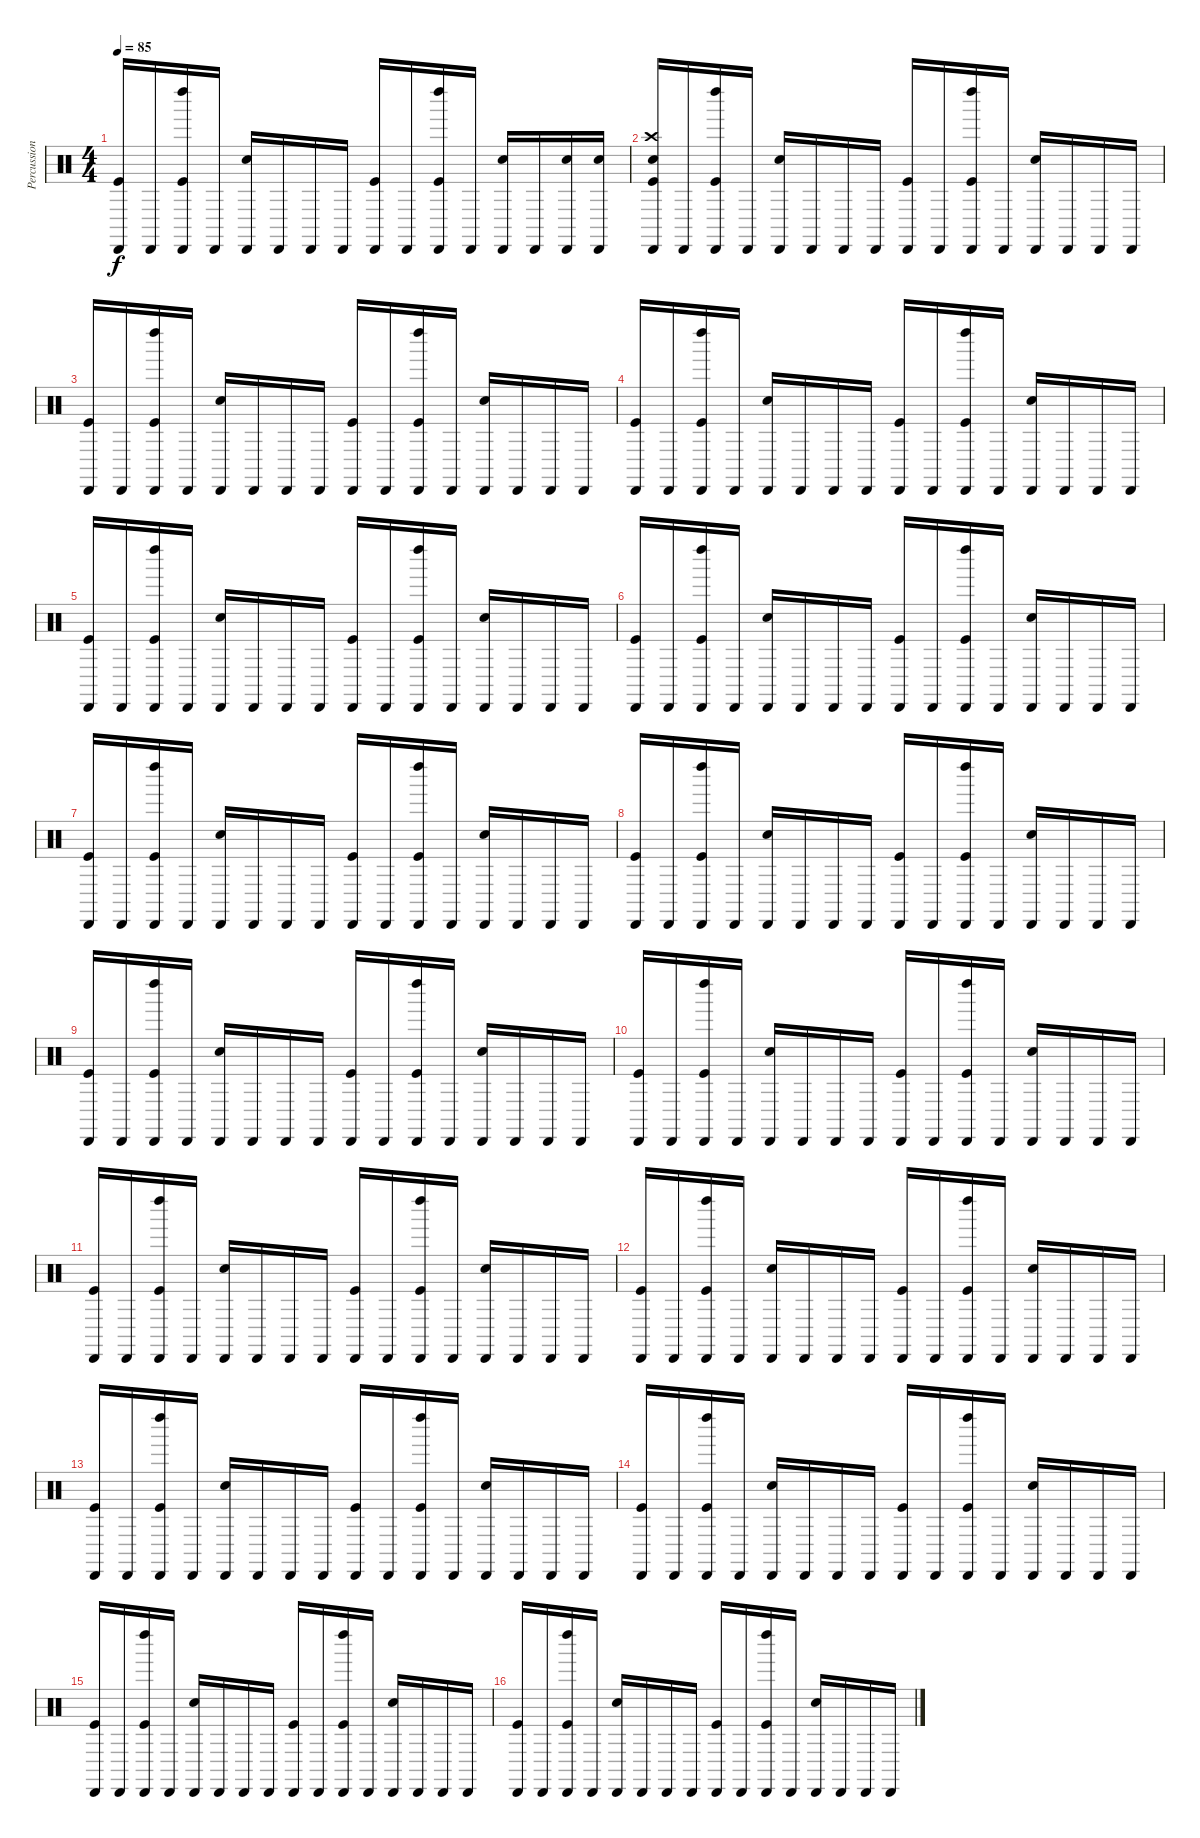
\track ("Percussions" "Percussion") {instrument percussion}
\staff {score}
\articulation defaults
\ts (4 4)
\tempo 85
\clef neutral
\ks c
("Cabasa (hit)" "Kick (hit)").16{dy f} "Cabasa (hit)".16 ("Kick (hit)" "Cabasa (hit)" "Left Maraca (hit)").16 "Cabasa (hit)".16 ("Snare (hit) 2" "Cabasa (hit)").16 "Cabasa (hit)".16 "Cabasa (hit)".16 "Cabasa (hit)".16 ("Kick (hit)" "Cabasa (hit)").16 "Cabasa (hit)".16 ("Kick (hit)" "Cabasa (hit)" "Left Maraca (hit)").16 "Cabasa (hit)".16 ("Snare (hit) 2" "Cabasa (hit)").16 "Cabasa (hit)".16 ("Cabasa (hit)" "Snare (hit) 2").16 ("Cabasa (hit)" "Snare (hit) 2").16 |
("Cabasa (hit)" "Kick (hit)" "Snare (hit) 2" "Crash high (hit)").16 "Cabasa (hit)".16 ("Kick (hit)" "Cabasa (hit)" "Left Maraca (hit)").16 "Cabasa (hit)".16 ("Snare (hit) 2" "Cabasa (hit)").16 "Cabasa (hit)".16 "Cabasa (hit)".16 "Cabasa (hit)".16 ("Kick (hit)" "Cabasa (hit)").16 "Cabasa (hit)".16 ("Kick (hit)" "Cabasa (hit)" "Left Maraca (hit)").16 "Cabasa (hit)".16 ("Snare (hit) 2" "Cabasa (hit)").16 "Cabasa (hit)".16 "Cabasa (hit)".16 "Cabasa (hit)".16 |
("Cabasa (hit)" "Kick (hit)").16 "Cabasa (hit)".16 ("Kick (hit)" "Cabasa (hit)" "Left Maraca (hit)").16 "Cabasa (hit)".16 ("Snare (hit) 2" "Cabasa (hit)").16 "Cabasa (hit)".16 "Cabasa (hit)".16 "Cabasa (hit)".16 ("Kick (hit)" "Cabasa (hit)").16 "Cabasa (hit)".16 ("Kick (hit)" "Cabasa (hit)" "Left Maraca (hit)").16 "Cabasa (hit)".16 ("Snare (hit) 2" "Cabasa (hit)").16 "Cabasa (hit)".16 "Cabasa (hit)".16 "Cabasa (hit)".16 |
("Cabasa (hit)" "Kick (hit)").16 "Cabasa (hit)".16 ("Kick (hit)" "Cabasa (hit)" "Left Maraca (hit)").16 "Cabasa (hit)".16 ("Snare (hit) 2" "Cabasa (hit)").16 "Cabasa (hit)".16 "Cabasa (hit)".16 "Cabasa (hit)".16 ("Kick (hit)" "Cabasa (hit)").16 "Cabasa (hit)".16 ("Kick (hit)" "Cabasa (hit)" "Left Maraca (hit)").16 "Cabasa (hit)".16 ("Snare (hit) 2" "Cabasa (hit)").16 "Cabasa (hit)".16 "Cabasa (hit)".16 "Cabasa (hit)".16 |
("Cabasa (hit)" "Kick (hit)").16 "Cabasa (hit)".16 ("Kick (hit)" "Cabasa (hit)" "Left Maraca (hit)").16 "Cabasa (hit)".16 ("Snare (hit) 2" "Cabasa (hit)").16 "Cabasa (hit)".16 "Cabasa (hit)".16 "Cabasa (hit)".16 ("Kick (hit)" "Cabasa (hit)").16 "Cabasa (hit)".16 ("Kick (hit)" "Cabasa (hit)" "Left Maraca (hit)").16 "Cabasa (hit)".16 ("Snare (hit) 2" "Cabasa (hit)").16 "Cabasa (hit)".16 "Cabasa (hit)".16 "Cabasa (hit)".16 |
("Cabasa (hit)" "Kick (hit)").16 "Cabasa (hit)".16 ("Kick (hit)" "Cabasa (hit)" "Left Maraca (hit)").16 "Cabasa (hit)".16 ("Snare (hit) 2" "Cabasa (hit)").16 "Cabasa (hit)".16 "Cabasa (hit)".16 "Cabasa (hit)".16 ("Kick (hit)" "Cabasa (hit)").16 "Cabasa (hit)".16 ("Kick (hit)" "Cabasa (hit)" "Left Maraca (hit)").16 "Cabasa (hit)".16 ("Snare (hit) 2" "Cabasa (hit)").16 "Cabasa (hit)".16 "Cabasa (hit)".16 "Cabasa (hit)".16 |
("Cabasa (hit)" "Kick (hit)").16 "Cabasa (hit)".16 ("Kick (hit)" "Cabasa (hit)" "Left Maraca (hit)").16 "Cabasa (hit)".16 ("Snare (hit) 2" "Cabasa (hit)").16 "Cabasa (hit)".16 "Cabasa (hit)".16 "Cabasa (hit)".16 ("Kick (hit)" "Cabasa (hit)").16 "Cabasa (hit)".16 ("Kick (hit)" "Cabasa (hit)" "Left Maraca (hit)").16 "Cabasa (hit)".16 ("Snare (hit) 2" "Cabasa (hit)").16 "Cabasa (hit)".16 "Cabasa (hit)".16 "Cabasa (hit)".16 |
("Cabasa (hit)" "Kick (hit)").16 "Cabasa (hit)".16 ("Kick (hit)" "Cabasa (hit)" "Left Maraca (hit)").16 "Cabasa (hit)".16 ("Snare (hit) 2" "Cabasa (hit)").16 "Cabasa (hit)".16 "Cabasa (hit)".16 "Cabasa (hit)".16 ("Kick (hit)" "Cabasa (hit)").16 "Cabasa (hit)".16 ("Kick (hit)" "Cabasa (hit)" "Left Maraca (hit)").16 "Cabasa (hit)".16 ("Snare (hit) 2" "Cabasa (hit)").16 "Cabasa (hit)".16 "Cabasa (hit)".16 "Cabasa (hit)".16 |
("Cabasa (hit)" "Kick (hit)").16 "Cabasa (hit)".16 ("Kick (hit)" "Cabasa (hit)" "Left Maraca (hit)").16 "Cabasa (hit)".16 ("Snare (hit) 2" "Cabasa (hit)").16 "Cabasa (hit)".16 "Cabasa (hit)".16 "Cabasa (hit)".16 ("Kick (hit)" "Cabasa (hit)").16 "Cabasa (hit)".16 ("Kick (hit)" "Cabasa (hit)" "Left Maraca (hit)").16 "Cabasa (hit)".16 ("Snare (hit) 2" "Cabasa (hit)").16 "Cabasa (hit)".16 "Cabasa (hit)".16 "Cabasa (hit)".16 |
("Cabasa (hit)" "Kick (hit)").16 "Cabasa (hit)".16 ("Kick (hit)" "Cabasa (hit)" "Left Maraca (hit)").16 "Cabasa (hit)".16 ("Snare (hit) 2" "Cabasa (hit)").16 "Cabasa (hit)".16 "Cabasa (hit)".16 "Cabasa (hit)".16 ("Kick (hit)" "Cabasa (hit)").16 "Cabasa (hit)".16 ("Kick (hit)" "Cabasa (hit)" "Left Maraca (hit)").16 "Cabasa (hit)".16 ("Snare (hit) 2" "Cabasa (hit)").16 "Cabasa (hit)".16 "Cabasa (hit)".16 "Cabasa (hit)".16 |
("Cabasa (hit)" "Kick (hit)").16 "Cabasa (hit)".16 ("Kick (hit)" "Cabasa (hit)" "Left Maraca (hit)").16 "Cabasa (hit)".16 ("Snare (hit) 2" "Cabasa (hit)").16 "Cabasa (hit)".16 "Cabasa (hit)".16 "Cabasa (hit)".16 ("Kick (hit)" "Cabasa (hit)").16 "Cabasa (hit)".16 ("Kick (hit)" "Cabasa (hit)" "Left Maraca (hit)").16 "Cabasa (hit)".16 ("Snare (hit) 2" "Cabasa (hit)").16 "Cabasa (hit)".16 "Cabasa (hit)".16 "Cabasa (hit)".16 |
("Cabasa (hit)" "Kick (hit)").16 "Cabasa (hit)".16 ("Kick (hit)" "Cabasa (hit)" "Left Maraca (hit)").16 "Cabasa (hit)".16 ("Snare (hit) 2" "Cabasa (hit)").16 "Cabasa (hit)".16 "Cabasa (hit)".16 "Cabasa (hit)".16 ("Kick (hit)" "Cabasa (hit)").16 "Cabasa (hit)".16 ("Kick (hit)" "Cabasa (hit)" "Left Maraca (hit)").16 "Cabasa (hit)".16 ("Snare (hit) 2" "Cabasa (hit)").16 "Cabasa (hit)".16 "Cabasa (hit)".16 "Cabasa (hit)".16 |
("Cabasa (hit)" "Kick (hit)").16 "Cabasa (hit)".16 ("Kick (hit)" "Cabasa (hit)" "Left Maraca (hit)").16 "Cabasa (hit)".16 ("Snare (hit) 2" "Cabasa (hit)").16 "Cabasa (hit)".16 "Cabasa (hit)".16 "Cabasa (hit)".16 ("Kick (hit)" "Cabasa (hit)").16 "Cabasa (hit)".16 ("Kick (hit)" "Cabasa (hit)" "Left Maraca (hit)").16 "Cabasa (hit)".16 ("Snare (hit) 2" "Cabasa (hit)").16 "Cabasa (hit)".16 "Cabasa (hit)".16 "Cabasa (hit)".16 |
("Cabasa (hit)" "Kick (hit)").16 "Cabasa (hit)".16 ("Kick (hit)" "Cabasa (hit)" "Left Maraca (hit)").16 "Cabasa (hit)".16 ("Snare (hit) 2" "Cabasa (hit)").16 "Cabasa (hit)".16 "Cabasa (hit)".16 "Cabasa (hit)".16 ("Kick (hit)" "Cabasa (hit)").16 "Cabasa (hit)".16 ("Kick (hit)" "Cabasa (hit)" "Left Maraca (hit)").16 "Cabasa (hit)".16 ("Snare (hit) 2" "Cabasa (hit)").16 "Cabasa (hit)".16 "Cabasa (hit)".16 "Cabasa (hit)".16 |
("Cabasa (hit)" "Kick (hit)").16 "Cabasa (hit)".16 ("Kick (hit)" "Cabasa (hit)" "Left Maraca (hit)").16 "Cabasa (hit)".16 ("Snare (hit) 2" "Cabasa (hit)").16 "Cabasa (hit)".16 "Cabasa (hit)".16 "Cabasa (hit)".16 ("Kick (hit)" "Cabasa (hit)").16 "Cabasa (hit)".16 ("Kick (hit)" "Cabasa (hit)" "Left Maraca (hit)").16 "Cabasa (hit)".16 ("Snare (hit) 2" "Cabasa (hit)").16 "Cabasa (hit)".16 "Cabasa (hit)".16 "Cabasa (hit)".16 |
("Cabasa (hit)" "Kick (hit)").16 "Cabasa (hit)".16 ("Kick (hit)" "Cabasa (hit)" "Left Maraca (hit)").16 "Cabasa (hit)".16 ("Snare (hit) 2" "Cabasa (hit)").16 "Cabasa (hit)".16 "Cabasa (hit)".16 "Cabasa (hit)".16 ("Kick (hit)" "Cabasa (hit)").16 "Cabasa (hit)".16 ("Kick (hit)" "Cabasa (hit)" "Left Maraca (hit)").16 "Cabasa (hit)".16 ("Snare (hit) 2" "Cabasa (hit)").16 "Cabasa (hit)".16 "Cabasa (hit)".16 "Cabasa (hit)".16
